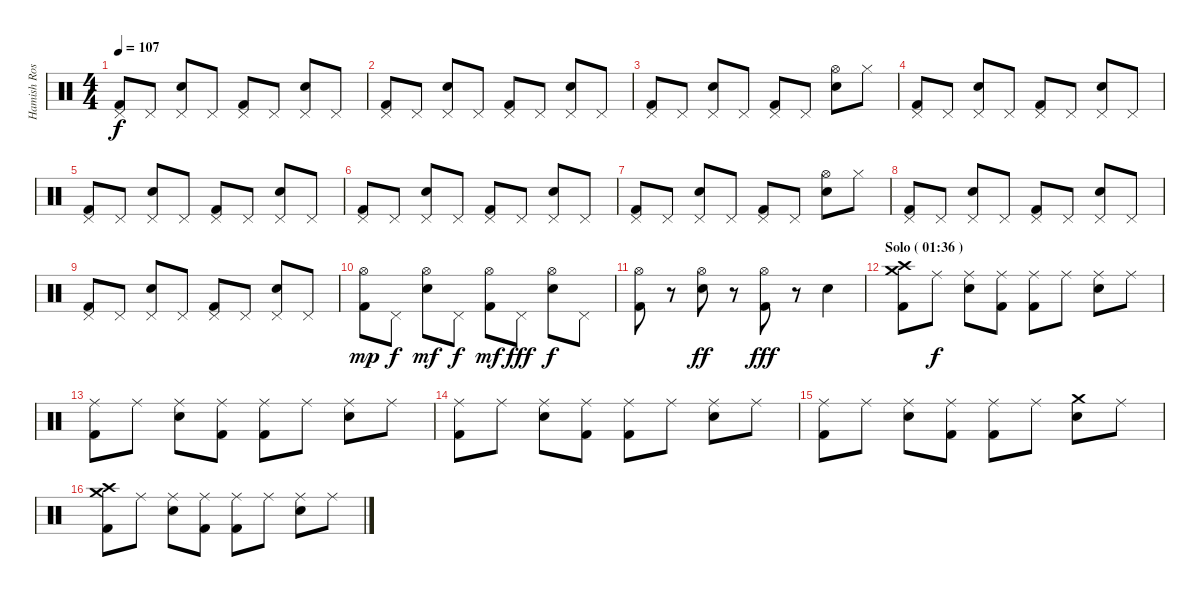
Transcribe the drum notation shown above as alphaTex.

\track ("Hamish Rosser" "Hamish Ros") {instrument percussion}
\staff {score}
\articulation defaults
\ts (4 4)
\tempo 107
\clef neutral
\ks c
("Pedal Hi-Hat (hit)" "Kick (hit) 2").8{dy f} "Pedal Hi-Hat (hit)".8 ("Pedal Hi-Hat (hit)" "Electric Snare (hit)").8 "Pedal Hi-Hat (hit)".8 ("Pedal Hi-Hat (hit)" "Kick (hit) 2").8 "Pedal Hi-Hat (hit)".8 ("Pedal Hi-Hat (hit)" "Electric Snare (hit)").8 "Pedal Hi-Hat (hit)".8 |
("Pedal Hi-Hat (hit)" "Kick (hit) 2").8 "Pedal Hi-Hat (hit)".8 ("Pedal Hi-Hat (hit)" "Electric Snare (hit)").8 "Pedal Hi-Hat (hit)".8 ("Pedal Hi-Hat (hit)" "Kick (hit) 2").8 "Pedal Hi-Hat (hit)".8 ("Pedal Hi-Hat (hit)" "Electric Snare (hit)").8 "Pedal Hi-Hat (hit)".8 |
("Pedal Hi-Hat (hit)" "Kick (hit) 2").8 "Pedal Hi-Hat (hit)".8 ("Pedal Hi-Hat (hit)" "Electric Snare (hit)").8 "Pedal Hi-Hat (hit)".8 ("Pedal Hi-Hat (hit)" "Kick (hit) 2").8 "Pedal Hi-Hat (hit)".8 ("Hi-Hat (open)" "Electric Snare (hit)").8 "Hi-Hat (closed)".8 |
("Pedal Hi-Hat (hit)" "Kick (hit) 2").8 "Pedal Hi-Hat (hit)".8 ("Pedal Hi-Hat (hit)" "Electric Snare (hit)").8 "Pedal Hi-Hat (hit)".8 ("Pedal Hi-Hat (hit)" "Kick (hit) 2").8 "Pedal Hi-Hat (hit)".8 ("Pedal Hi-Hat (hit)" "Electric Snare (hit)").8 "Pedal Hi-Hat (hit)".8 |
("Pedal Hi-Hat (hit)" "Kick (hit) 2").8 "Pedal Hi-Hat (hit)".8 ("Pedal Hi-Hat (hit)" "Electric Snare (hit)").8 "Pedal Hi-Hat (hit)".8 ("Pedal Hi-Hat (hit)" "Kick (hit) 2").8 "Pedal Hi-Hat (hit)".8 ("Pedal Hi-Hat (hit)" "Electric Snare (hit)").8 "Pedal Hi-Hat (hit)".8 |
("Pedal Hi-Hat (hit)" "Kick (hit) 2").8 "Pedal Hi-Hat (hit)".8 ("Pedal Hi-Hat (hit)" "Electric Snare (hit)").8 "Pedal Hi-Hat (hit)".8 ("Pedal Hi-Hat (hit)" "Kick (hit) 2").8 "Pedal Hi-Hat (hit)".8 ("Pedal Hi-Hat (hit)" "Electric Snare (hit)").8 "Pedal Hi-Hat (hit)".8 |
("Pedal Hi-Hat (hit)" "Kick (hit) 2").8 "Pedal Hi-Hat (hit)".8 ("Pedal Hi-Hat (hit)" "Electric Snare (hit)").8 "Pedal Hi-Hat (hit)".8 ("Pedal Hi-Hat (hit)" "Kick (hit) 2").8 "Pedal Hi-Hat (hit)".8 ("Hi-Hat (open)" "Electric Snare (hit)").8 "Hi-Hat (closed)".8 |
("Pedal Hi-Hat (hit)" "Kick (hit) 2").8 "Pedal Hi-Hat (hit)".8 ("Pedal Hi-Hat (hit)" "Electric Snare (hit)").8 "Pedal Hi-Hat (hit)".8 ("Pedal Hi-Hat (hit)" "Kick (hit) 2").8 "Pedal Hi-Hat (hit)".8 ("Pedal Hi-Hat (hit)" "Electric Snare (hit)").8 "Pedal Hi-Hat (hit)".8 |
("Pedal Hi-Hat (hit)" "Kick (hit) 2").8 "Pedal Hi-Hat (hit)".8 ("Pedal Hi-Hat (hit)" "Electric Snare (hit)").8 "Pedal Hi-Hat (hit)".8 ("Pedal Hi-Hat (hit)" "Kick (hit) 2").8 "Pedal Hi-Hat (hit)".8 ("Pedal Hi-Hat (hit)" "Electric Snare (hit)").8 "Pedal Hi-Hat (hit)".8 |
("Hi-Hat (open)" "Kick (hit) 2").8{dy mp} "Pedal Hi-Hat (hit)".8{dy f} ("Hi-Hat (open)" "Electric Snare (hit)").8{dy mf} "Pedal Hi-Hat (hit)".8{dy f} ("Hi-Hat (open)" "Kick (hit) 2").8{dy mf} "Pedal Hi-Hat (hit)".8{dy fff} ("Hi-Hat (open)" "Electric Snare (hit)").8{dy f} "Pedal Hi-Hat (hit)".8 |
("Hi-Hat (open)" "Kick (hit) 2").8 r.8 ("Hi-Hat (open)" "Electric Snare (hit)").8{dy ff} r.8 ("Hi-Hat (open)" "Kick (hit) 2").8{dy fff} r.8 "Electric Snare (hit)".4 |
\section ("" "Solo ( 01:36 )")
("Crash medium (hit)" "Crash high (hit)" "Kick (hit) 2").8 "Ride (middle)".8{dy f} ("Ride (middle)" "Electric Snare (hit)").8 ("Ride (middle)" "Kick (hit) 2").8 ("Ride (middle)" "Kick (hit) 2").8 "Ride (middle)".8 ("Ride (middle)" "Electric Snare (hit)").8 "Ride (middle)".8 |
("Ride (middle)" "Kick (hit) 2").8 "Ride (middle)".8 ("Ride (middle)" "Electric Snare (hit)").8 ("Ride (middle)" "Kick (hit) 2").8 ("Ride (middle)" "Kick (hit) 2").8 "Ride (middle)".8 ("Ride (middle)" "Electric Snare (hit)").8 "Ride (middle)".8 |
("Ride (middle)" "Kick (hit) 2").8 "Ride (middle)".8 ("Ride (middle)" "Electric Snare (hit)").8 ("Ride (middle)" "Kick (hit) 2").8 ("Ride (middle)" "Kick (hit) 2").8 "Ride (middle)".8 ("Ride (middle)" "Electric Snare (hit)").8 "Ride (middle)".8 |
("Ride (middle)" "Kick (hit) 2").8 "Ride (middle)".8 ("Ride (middle)" "Electric Snare (hit)").8 ("Ride (middle)" "Kick (hit) 2").8 ("Ride (middle)" "Kick (hit) 2").8 "Ride (middle)".8 ("Crash medium (hit)" "Electric Snare (hit)").8 "Ride (middle)".8 |
("Crash medium (hit)" "Crash high (hit)" "Kick (hit) 2").8 "Ride (middle)".8 ("Ride (middle)" "Electric Snare (hit)").8 ("Ride (middle)" "Kick (hit) 2").8 ("Ride (middle)" "Kick (hit) 2").8 "Ride (middle)".8 ("Ride (middle)" "Electric Snare (hit)").8 "Ride (middle)".8
